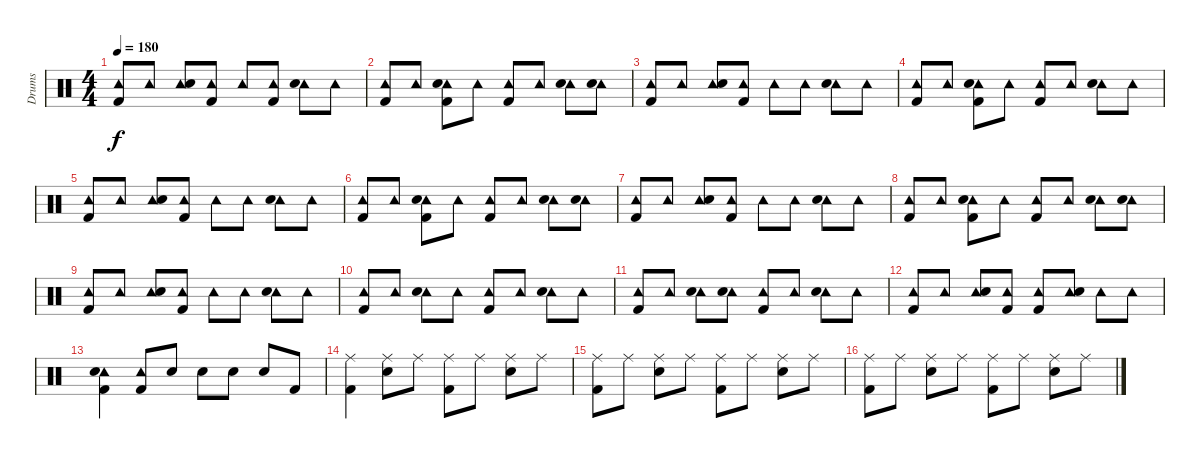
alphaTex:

\track ("Drums" "Drums") {instrument percussion}
\staff {score}
\articulation defaults
\ts (4 4)
\tempo 180
\clef neutral
\ks c
("Tambourine (hit)" "Kick (hit) 2").8{dy f} "Tambourine (hit)".8 ("Tambourine (hit)" "Snare (hit) 2").8 ("Tambourine (hit)" "Kick (hit) 2").8 "Tambourine (hit)".8 ("Tambourine (hit)" "Kick (hit) 2").8 ("Tambourine (hit)" "Snare (hit) 2").8 "Tambourine (hit)".8 |
("Tambourine (hit)" "Kick (hit) 2").8 "Tambourine (hit)".8 ("Tambourine (hit)" "Snare (hit) 2" "Kick (hit) 2").8 "Tambourine (hit)".8 ("Tambourine (hit)" "Kick (hit) 2").8 "Tambourine (hit)".8 ("Tambourine (hit)" "Snare (hit) 2").8 ("Tambourine (hit)" "Snare (hit) 2").8 |
("Tambourine (hit)" "Kick (hit) 2").8 "Tambourine (hit)".8 ("Tambourine (hit)" "Snare (hit) 2").8 ("Tambourine (hit)" "Kick (hit) 2").8 "Tambourine (hit)".8 "Tambourine (hit)".8 ("Tambourine (hit)" "Snare (hit) 2").8 "Tambourine (hit)".8 |
("Tambourine (hit)" "Kick (hit) 2").8 "Tambourine (hit)".8 ("Tambourine (hit)" "Snare (hit) 2" "Kick (hit) 2").8 "Tambourine (hit)".8 ("Tambourine (hit)" "Kick (hit) 2").8 "Tambourine (hit)".8 ("Tambourine (hit)" "Snare (hit) 2").8 "Tambourine (hit)".8 |
("Tambourine (hit)" "Kick (hit) 2").8 "Tambourine (hit)".8 ("Tambourine (hit)" "Snare (hit) 2").8 ("Tambourine (hit)" "Kick (hit) 2").8 "Tambourine (hit)".8 "Tambourine (hit)".8 ("Tambourine (hit)" "Snare (hit) 2").8 "Tambourine (hit)".8 |
("Tambourine (hit)" "Kick (hit) 2").8 "Tambourine (hit)".8 ("Tambourine (hit)" "Snare (hit) 2" "Kick (hit) 2").8 "Tambourine (hit)".8 ("Tambourine (hit)" "Kick (hit) 2").8 "Tambourine (hit)".8 ("Tambourine (hit)" "Snare (hit) 2").8 ("Tambourine (hit)" "Snare (hit) 2").8 |
("Tambourine (hit)" "Kick (hit) 2").8 "Tambourine (hit)".8 ("Tambourine (hit)" "Snare (hit) 2").8 ("Tambourine (hit)" "Kick (hit) 2").8 "Tambourine (hit)".8 "Tambourine (hit)".8 ("Tambourine (hit)" "Snare (hit) 2").8 "Tambourine (hit)".8 |
("Tambourine (hit)" "Kick (hit) 2").8 "Tambourine (hit)".8 ("Tambourine (hit)" "Snare (hit) 2" "Kick (hit) 2").8 "Tambourine (hit)".8 ("Tambourine (hit)" "Kick (hit) 2").8 "Tambourine (hit)".8 ("Tambourine (hit)" "Snare (hit) 2").8 ("Tambourine (hit)" "Snare (hit) 2").8 |
("Tambourine (hit)" "Kick (hit) 2").8 "Tambourine (hit)".8 ("Tambourine (hit)" "Snare (hit) 2").8 ("Tambourine (hit)" "Kick (hit) 2").8 "Tambourine (hit)".8 "Tambourine (hit)".8 ("Tambourine (hit)" "Snare (hit) 2").8 "Tambourine (hit)".8 |
("Tambourine (hit)" "Kick (hit) 2").8 "Tambourine (hit)".8 ("Tambourine (hit)" "Snare (hit) 2").8 "Tambourine (hit)".8 ("Tambourine (hit)" "Kick (hit) 2").8 "Tambourine (hit)".8 ("Tambourine (hit)" "Snare (hit) 2").8 "Tambourine (hit)".8 |
("Tambourine (hit)" "Kick (hit) 2").8 "Tambourine (hit)".8 ("Tambourine (hit)" "Snare (hit) 2").8 ("Tambourine (hit)" "Snare (hit) 2").8 ("Tambourine (hit)" "Kick (hit) 2").8 "Tambourine (hit)".8 ("Tambourine (hit)" "Snare (hit) 2").8 "Tambourine (hit)".8 |
("Tambourine (hit)" "Kick (hit) 2").8 "Tambourine (hit)".8 ("Tambourine (hit)" "Snare (hit) 2").8 ("Tambourine (hit)" "Kick (hit) 2").8 ("Tambourine (hit)" "Kick (hit) 2").8 ("Tambourine (hit)" "Snare (hit) 2").8 "Tambourine (hit)".8 "Tambourine (hit)".8 |
("Tambourine (hit)" "Snare (hit) 2" "Kick (hit) 2").4 ("Tambourine (hit)" "Kick (hit) 2").8 "Snare (hit) 2".8 "Snare (hit) 2".8 "Snare (hit) 2".8 "Snare (hit) 2".8 "Kick (hit) 2".8 |
("Ride (middle)" "Kick (hit) 2").4 ("Ride (middle)" "Snare (hit) 2").8 "Ride (middle)".8 ("Ride (middle)" "Kick (hit) 2").8 "Ride (middle)".8 ("Ride (middle)" "Snare (hit) 2").8 "Ride (middle)".8 |
("Ride (middle)" "Kick (hit) 2").8 "Ride (middle)".8 ("Ride (middle)" "Snare (hit) 2").8 "Ride (middle)".8 ("Ride (middle)" "Kick (hit) 2").8 "Ride (middle)".8 ("Ride (middle)" "Snare (hit) 2").8 "Ride (middle)".8 |
("Ride (middle)" "Kick (hit) 2").8 "Ride (middle)".8 ("Ride (middle)" "Snare (hit) 2").8 "Ride (middle)".8 ("Ride (middle)" "Kick (hit) 2").8 "Ride (middle)".8 ("Ride (middle)" "Snare (hit) 2").8 "Ride (middle)".8
